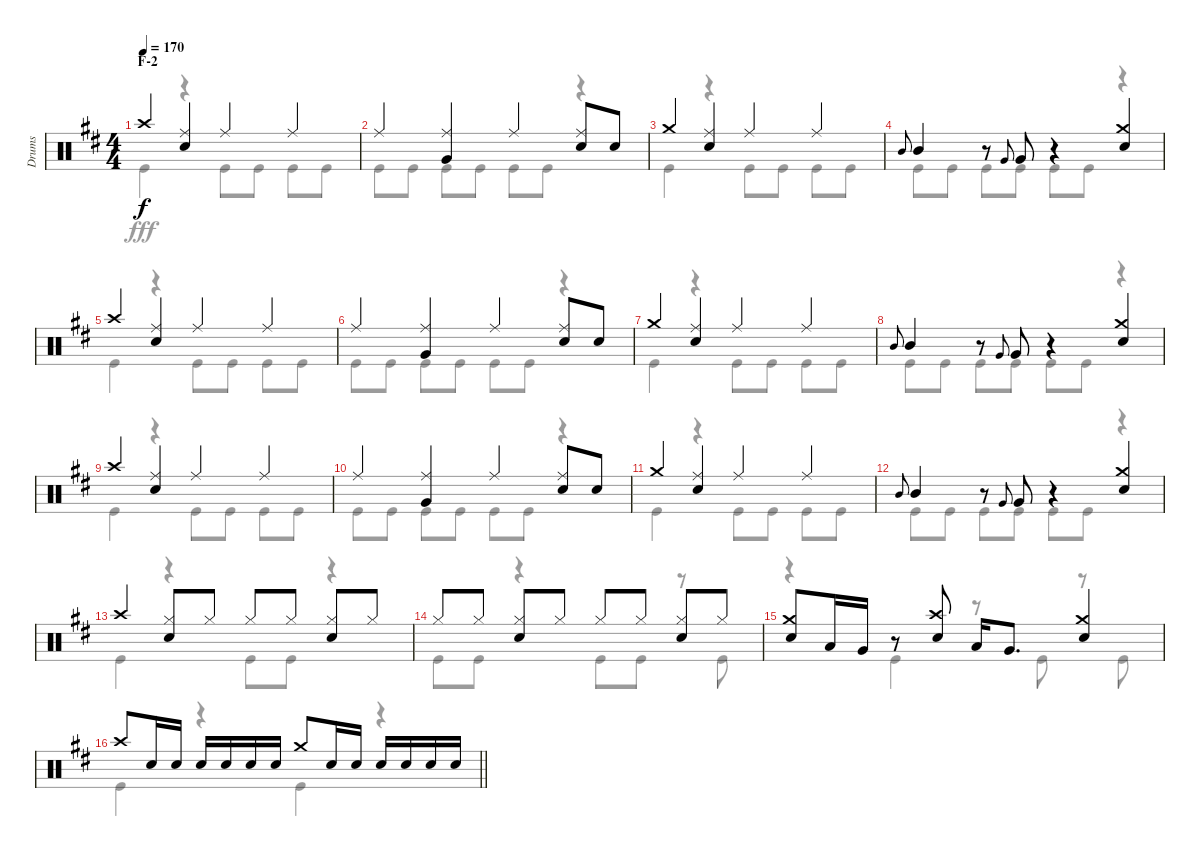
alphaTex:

\track ("Drums" "Drums") {instrument percussion}
\staff {score}
\articulation defaults
\voice
\ts (4 4)
\section ("" "F-2")
\tempo 170
\clef neutral
\ks d "Crash high (hit)".4{dy f}
("Ride (middle)" "Snare (hit) 2").4 "Ride (middle)".4 "Ride (middle)".4 |
"Ride (middle)".4 ("Ride (middle)" "Very Low Tom (hit)").4 "Ride (middle)".4 ("Ride (middle)" "Snare (hit) 2").8 "Snare (hit) 2".8 |
"Crash medium (hit)".4 ("Ride (middle)" "Snare (hit) 2").4 "Ride (middle)".4 "Ride (middle)".4 |
"Mid Tom (hit)".8{gr onbeat} "Mid Tom (hit)".4 r.8 "Very Low Tom (hit)".8{gr onbeat} "Very Low Tom (hit)".8 r.4 ("Crash medium (hit)" "Snare (hit) 2").4 |
"Crash high (hit)".4 ("Ride (middle)" "Snare (hit) 2").4 "Ride (middle)".4 "Ride (middle)".4 |
"Ride (middle)".4 ("Ride (middle)" "Very Low Tom (hit)").4 "Ride (middle)".4 ("Ride (middle)" "Snare (hit) 2").8 "Snare (hit) 2".8 |
"Crash medium (hit)".4 ("Ride (middle)" "Snare (hit) 2").4 "Ride (middle)".4 "Ride (middle)".4 |
"Mid Tom (hit)".8{gr onbeat} "Mid Tom (hit)".4 r.8 "Very Low Tom (hit)".8{gr onbeat} "Very Low Tom (hit)".8 r.4 ("Crash medium (hit)" "Snare (hit) 2").4 |
"Crash high (hit)".4 ("Ride (middle)" "Snare (hit) 2").4 "Ride (middle)".4 "Ride (middle)".4 |
"Ride (middle)".4 ("Ride (middle)" "Very Low Tom (hit)").4 "Ride (middle)".4 ("Ride (middle)" "Snare (hit) 2").8 "Snare (hit) 2".8 |
"Crash medium (hit)".4 ("Ride (middle)" "Snare (hit) 2").4 "Ride (middle)".4 "Ride (middle)".4 |
"Mid Tom (hit)".8{gr onbeat} "Mid Tom (hit)".4 r.8 "Very Low Tom (hit)".8{gr onbeat} "Very Low Tom (hit)".8 r.4 ("Crash medium (hit)" "Snare (hit) 2").4 |
"Crash high (hit)".4 ("Hi-Hat (closed)" "Snare (hit) 2").8 "Hi-Hat (closed)".8 "Hi-Hat (closed)".8 "Hi-Hat (closed)".8 ("Hi-Hat (closed)" "Snare (hit) 2").8 "Hi-Hat (closed)".8 |
"Hi-Hat (closed)".8 "Hi-Hat (closed)".8 ("Hi-Hat (closed)" "Snare (hit) 2").8 "Hi-Hat (closed)".8 "Hi-Hat (closed)".8 "Hi-Hat (closed)".8 ("Hi-Hat (closed)" "Snare (hit) 2").8 "Hi-Hat (closed)".8 |
("Crash medium (hit)" "Snare (hit) 2").8 "Low Tom (hit)".16 "Very Low Tom (hit)".16 r.8 ("Crash high (hit)" "Snare (hit) 2").8 "Low Tom (hit)".16 "Very Low Tom (hit)".8{d} ("Crash medium (hit)" "Snare (hit) 2").4 |
\barLineRight lightlight "Crash high (hit)".8 "Snare (hit) 2".16 "Snare (hit) 2".16 "Snare (hit) 2".16 "Snare (hit) 2".16 "Snare (hit) 2".16 "Snare (hit) 2".16 "Crash medium (hit)".8 "Snare (hit) 2".16 "Snare (hit) 2".16 "Snare (hit) 2".16 "Snare (hit) 2".16 "Snare (hit) 2".16 "Snare (hit) 2".16
\voice
\clef neutral
\ottava regular
\simile none
\ks d "Kick (hit)".4{dy fff}
r.4 "Kick (hit)".8 "Kick (hit)".8 "Kick (hit)".8 "Kick (hit)".8 |
"Kick (hit)".8 "Kick (hit)".8 "Kick (hit)".8 "Kick (hit)".8 "Kick (hit)".8 "Kick (hit)".8 r.4 |
"Kick (hit)".4 r.4 "Kick (hit)".8 "Kick (hit)".8 "Kick (hit)".8 "Kick (hit)".8 |
"Kick (hit)".8 "Kick (hit)".8 "Kick (hit)".8 "Kick (hit)".8 "Kick (hit)".8 "Kick (hit)".8 r.4 |
"Kick (hit)".4 r.4 "Kick (hit)".8 "Kick (hit)".8 "Kick (hit)".8 "Kick (hit)".8 |
"Kick (hit)".8 "Kick (hit)".8 "Kick (hit)".8 "Kick (hit)".8 "Kick (hit)".8 "Kick (hit)".8 r.4 |
"Kick (hit)".4 r.4 "Kick (hit)".8 "Kick (hit)".8 "Kick (hit)".8 "Kick (hit)".8 |
"Kick (hit)".8 "Kick (hit)".8 "Kick (hit)".8 "Kick (hit)".8 "Kick (hit)".8 "Kick (hit)".8 r.4 |
"Kick (hit)".4 r.4 "Kick (hit)".8 "Kick (hit)".8 "Kick (hit)".8 "Kick (hit)".8 |
"Kick (hit)".8 "Kick (hit)".8 "Kick (hit)".8 "Kick (hit)".8 "Kick (hit)".8 "Kick (hit)".8 r.4 |
"Kick (hit)".4 r.4 "Kick (hit)".8 "Kick (hit)".8 "Kick (hit)".8 "Kick (hit)".8 |
"Kick (hit)".8 "Kick (hit)".8 "Kick (hit)".8 "Kick (hit)".8 "Kick (hit)".8 "Kick (hit)".8 r.4 |
"Kick (hit)".4 r.4 "Kick (hit)".8 "Kick (hit)".8 r.4 |
"Kick (hit)".8 "Kick (hit)".8 r.4 "Kick (hit)".8 "Kick (hit)".8 r.8 "Kick (hit)".8 |
r.4 "Kick (hit)".4 r.8 "Kick (hit)".8 r.8 "Kick (hit)".8 |
\barLineRight lightlight "Kick (hit)".4
r.4 "Kick (hit)".4 r.4
